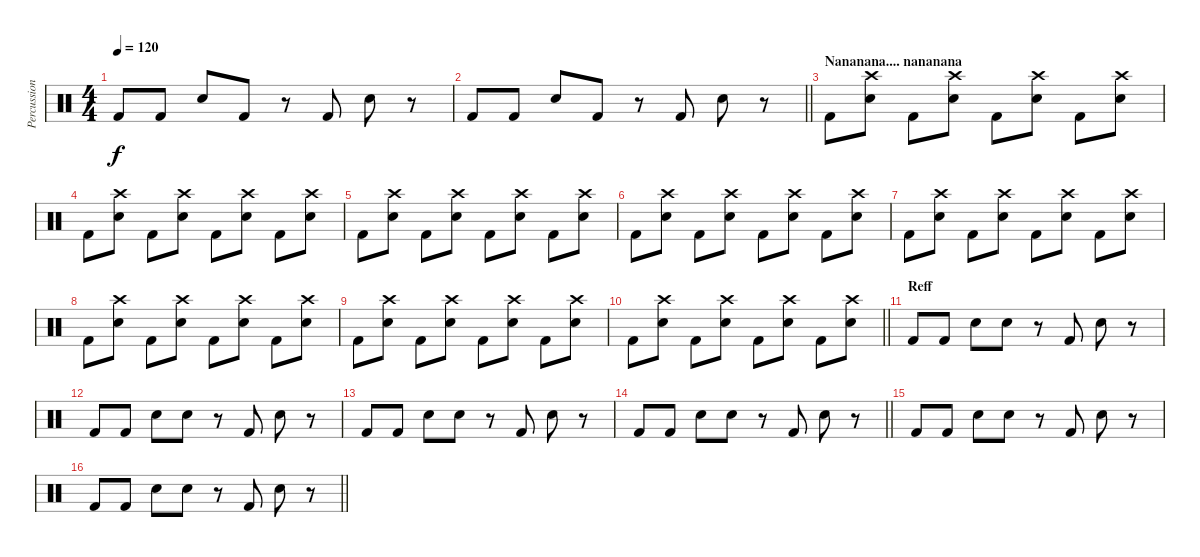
\track ("Percussion" "Percussion") {instrument percussion}
\staff {score}
\articulation defaults
\ts (4 4)
\tempo 120
\clef neutral
\ks c "Kick (hit) 2".8{dy f} "Kick (hit) 2".8 "Snare (hit) 2".8 "Kick (hit) 2".8
r.8 "Kick (hit) 2".8 "Snare (hit) 2".8 r.8 |
\barLineRight lightlight "Kick (hit) 2".8 "Kick (hit) 2".8 "Snare (hit) 2".8 "Kick (hit) 2".8
r.8 "Kick (hit) 2".8 "Snare (hit) 2".8 r.8 |
\section ("" "Nananana.... nananana")
"Kick (hit) 2".8 ("Crash high (hit)" "Snare (hit) 2").8 "Kick (hit) 2".8 ("Crash high (hit)" "Snare (hit) 2").8 "Kick (hit) 2".8 ("Crash high (hit)" "Snare (hit) 2").8 "Kick (hit) 2".8 ("Crash high (hit)" "Snare (hit) 2").8 |
"Kick (hit) 2".8 ("Crash high (hit)" "Snare (hit) 2").8 "Kick (hit) 2".8 ("Crash high (hit)" "Snare (hit) 2").8 "Kick (hit) 2".8 ("Crash high (hit)" "Snare (hit) 2").8 "Kick (hit) 2".8 ("Crash high (hit)" "Snare (hit) 2").8 |
"Kick (hit) 2".8 ("Crash high (hit)" "Snare (hit) 2").8 "Kick (hit) 2".8 ("Crash high (hit)" "Snare (hit) 2").8 "Kick (hit) 2".8 ("Crash high (hit)" "Snare (hit) 2").8 "Kick (hit) 2".8 ("Crash high (hit)" "Snare (hit) 2").8 |
"Kick (hit) 2".8 ("Crash high (hit)" "Snare (hit) 2").8 "Kick (hit) 2".8 ("Crash high (hit)" "Snare (hit) 2").8 "Kick (hit) 2".8 ("Crash high (hit)" "Snare (hit) 2").8 "Kick (hit) 2".8 ("Crash high (hit)" "Snare (hit) 2").8 |
"Kick (hit) 2".8 ("Crash high (hit)" "Snare (hit) 2").8 "Kick (hit) 2".8 ("Crash high (hit)" "Snare (hit) 2").8 "Kick (hit) 2".8 ("Crash high (hit)" "Snare (hit) 2").8 "Kick (hit) 2".8 ("Crash high (hit)" "Snare (hit) 2").8 |
"Kick (hit) 2".8 ("Crash high (hit)" "Snare (hit) 2").8 "Kick (hit) 2".8 ("Crash high (hit)" "Snare (hit) 2").8 "Kick (hit) 2".8 ("Crash high (hit)" "Snare (hit) 2").8 "Kick (hit) 2".8 ("Crash high (hit)" "Snare (hit) 2").8 |
"Kick (hit) 2".8 ("Crash high (hit)" "Snare (hit) 2").8 "Kick (hit) 2".8 ("Crash high (hit)" "Snare (hit) 2").8 "Kick (hit) 2".8 ("Crash high (hit)" "Snare (hit) 2").8 "Kick (hit) 2".8 ("Crash high (hit)" "Snare (hit) 2").8 |
\barLineRight lightlight "Kick (hit) 2".8
("Crash high (hit)" "Snare (hit) 2").8 "Kick (hit) 2".8 ("Crash high (hit)" "Snare (hit) 2").8 "Kick (hit) 2".8 ("Crash high (hit)" "Snare (hit) 2").8 "Kick (hit) 2".8 ("Crash high (hit)" "Snare (hit) 2").8 |
\section ("" "Reff")
"Kick (hit) 2".8 "Kick (hit) 2".8 "Snare (hit) 2".8 "Snare (hit) 2".8 r.8 "Kick (hit) 2".8 "Snare (hit) 2".8 r.8 |
"Kick (hit) 2".8 "Kick (hit) 2".8 "Snare (hit) 2".8 "Snare (hit) 2".8 r.8 "Kick (hit) 2".8 "Snare (hit) 2".8 r.8 |
"Kick (hit) 2".8 "Kick (hit) 2".8 "Snare (hit) 2".8 "Snare (hit) 2".8 r.8 "Kick (hit) 2".8 "Snare (hit) 2".8 r.8 |
\barLineRight lightlight "Kick (hit) 2".8 "Kick (hit) 2".8 "Snare (hit) 2".8 "Snare (hit) 2".8
r.8 "Kick (hit) 2".8 "Snare (hit) 2".8 r.8 |
"Kick (hit) 2".8 "Kick (hit) 2".8 "Snare (hit) 2".8 "Snare (hit) 2".8 r.8 "Kick (hit) 2".8 "Snare (hit) 2".8 r.8 |
\barLineRight lightlight "Kick (hit) 2".8 "Kick (hit) 2".8 "Snare (hit) 2".8 "Snare (hit) 2".8
r.8 "Kick (hit) 2".8 "Snare (hit) 2".8 r.8
